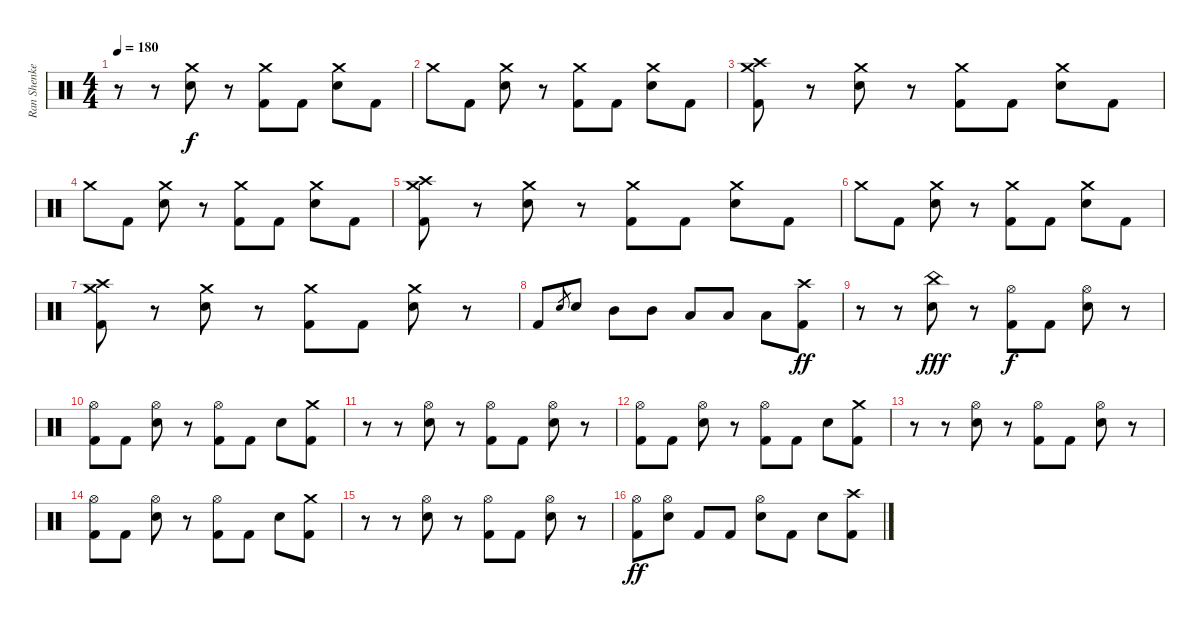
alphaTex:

\track ("Ran Shenkerman" "Ran Shenke") {instrument percussion}
\staff {score}
\articulation defaults
\ts (4 4)
\tempo 180
\clef neutral
\ks c
r.8{dy f} r.8 ("Crash medium (hit)" "Snare (hit) 2").8 r.8 ("Crash medium (hit)" "Kick (hit) 2").8 "Kick (hit) 2".8 ("Crash medium (hit)" "Snare (hit) 2").8 "Kick (hit) 2".8 |
"Crash medium (hit)".8 "Kick (hit) 2".8 ("Crash medium (hit)" "Snare (hit) 2").8 r.8 ("Crash medium (hit)" "Kick (hit) 2").8 "Kick (hit) 2".8 ("Crash medium (hit)" "Snare (hit) 2").8 "Kick (hit) 2".8 |
("Crash medium (hit)" "Crash high (hit)" "Kick (hit) 2").8 r.8 ("Crash medium (hit)" "Snare (hit) 2").8 r.8 ("Crash medium (hit)" "Kick (hit) 2").8 "Kick (hit) 2".8 ("Crash medium (hit)" "Snare (hit) 2").8 "Kick (hit) 2".8 |
"Crash medium (hit)".8 "Kick (hit) 2".8 ("Crash medium (hit)" "Snare (hit) 2").8 r.8 ("Crash medium (hit)" "Kick (hit) 2").8 "Kick (hit) 2".8 ("Crash medium (hit)" "Snare (hit) 2").8 "Kick (hit) 2".8 |
("Crash medium (hit)" "Crash high (hit)" "Kick (hit) 2").8 r.8 ("Crash medium (hit)" "Snare (hit) 2").8 r.8 ("Crash medium (hit)" "Kick (hit) 2").8 "Kick (hit) 2".8 ("Crash medium (hit)" "Snare (hit) 2").8 "Kick (hit) 2".8 |
"Crash medium (hit)".8 "Kick (hit) 2".8 ("Crash medium (hit)" "Snare (hit) 2").8 r.8 ("Crash medium (hit)" "Kick (hit) 2").8 "Kick (hit) 2".8 ("Crash medium (hit)" "Snare (hit) 2").8 "Kick (hit) 2".8 |
("Crash medium (hit)" "Crash high (hit)" "Kick (hit) 2").8 r.8 ("Crash medium (hit)" "Snare (hit) 2").8 r.8 ("Crash medium (hit)" "Kick (hit) 2").8 "Kick (hit) 2".8 ("Crash medium (hit)" "Snare (hit) 2").8 r.8 |
"Kick (hit) 2".8 "Snare (hit) 2".8{gr} "Snare (hit) 2".8 "Mid Tom (hit)".8 "Mid Tom (hit)".8 "Low Tom (hit)".8 "Low Floor Tom (hit)".8 "Low Floor Tom (hit)".8 ("Crash high (hit)" "Kick (hit) 2").8{dy ff} |
r.8 r.8 ("China (hit)" "Snare (hit) 2").8{dy fff} r.8 ("Hi-Hat (open)" "Kick (hit) 2").8{dy f} "Kick (hit) 2".8 ("Hi-Hat (open)" "Snare (hit) 2").8 r.8 |
("Hi-Hat (open)" "Kick (hit) 2").8 "Kick (hit) 2".8 ("Hi-Hat (open)" "Snare (hit) 2").8 r.8 ("Hi-Hat (open)" "Kick (hit) 2").8 "Kick (hit) 2".8 "Snare (hit) 2".8 ("Crash medium (hit)" "Kick (hit) 2").8 |
r.8 r.8 ("Hi-Hat (open)" "Snare (hit) 2").8 r.8 ("Hi-Hat (open)" "Kick (hit) 2").8 "Kick (hit) 2".8 ("Hi-Hat (open)" "Snare (hit) 2").8 r.8 |
("Hi-Hat (open)" "Kick (hit) 2").8 "Kick (hit) 2".8 ("Hi-Hat (open)" "Snare (hit) 2").8 r.8 ("Hi-Hat (open)" "Kick (hit) 2").8 "Kick (hit) 2".8 "Snare (hit) 2".8 ("Crash medium (hit)" "Kick (hit) 2").8 |
r.8 r.8 ("Hi-Hat (open)" "Snare (hit) 2").8 r.8 ("Hi-Hat (open)" "Kick (hit) 2").8 "Kick (hit) 2".8 ("Hi-Hat (open)" "Snare (hit) 2").8 r.8 |
("Hi-Hat (open)" "Kick (hit) 2").8 "Kick (hit) 2".8 ("Hi-Hat (open)" "Snare (hit) 2").8 r.8 ("Hi-Hat (open)" "Kick (hit) 2").8 "Kick (hit) 2".8 "Snare (hit) 2".8 ("Crash medium (hit)" "Kick (hit) 2").8 |
r.8 r.8 ("Hi-Hat (open)" "Snare (hit) 2").8 r.8 ("Hi-Hat (open)" "Kick (hit) 2").8 "Kick (hit) 2".8 ("Hi-Hat (open)" "Snare (hit) 2").8 r.8 |
("Hi-Hat (open)" "Kick (hit) 2").8{dy ff} ("Hi-Hat (open)" "Snare (hit) 2").8 "Kick (hit) 2".8 "Kick (hit) 2".8 ("Hi-Hat (open)" "Snare (hit) 2").8 "Kick (hit) 2".8 "Snare (hit) 2".8 ("Crash high (hit)" "Kick (hit) 2").8
